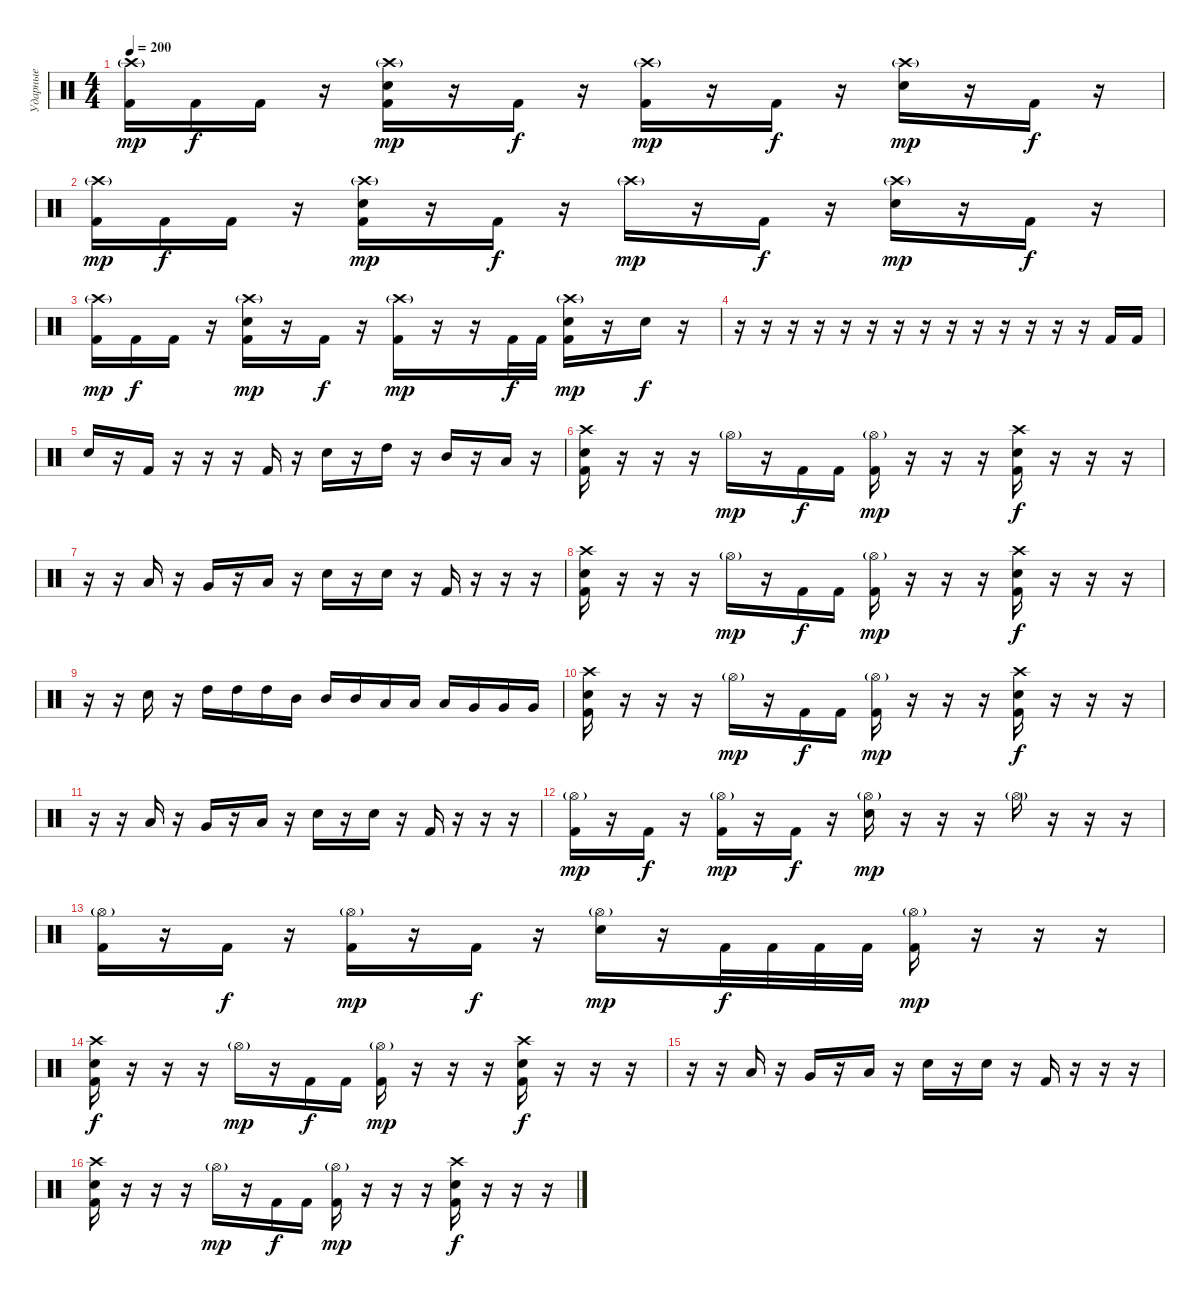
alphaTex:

\track ("Ударные" "Ударные") {instrument percussion bank 101}
\staff {score}
\articulation defaults
\ts (4 4)
\tempo 200
\clef neutral
\ks c
("Crash high (hit)"{g} "Kick (hit) 2").16{dy mp} "Kick (hit) 2".16{dy f} "Kick (hit) 2".16 r.16 ("Crash high (hit)"{g} "Electric Snare (hit)" "Kick (hit) 2").16{dy mp} r.16 "Kick (hit) 2".16{dy f} r.16 ("Crash high (hit)"{g} "Kick (hit) 2").16{dy mp} r.16 "Kick (hit) 2".16{dy f} r.16 ("Crash high (hit)"{g} "Electric Snare (hit)").16{dy mp} r.16 "Kick (hit) 2".16{dy f} r.16 |
("Crash high (hit)"{g} "Kick (hit) 2").16{dy mp} "Kick (hit) 2".16{dy f} "Kick (hit) 2".16 r.16 ("Crash high (hit)"{g} "Electric Snare (hit)" "Kick (hit) 2").16{dy mp} r.16 "Kick (hit) 2".16{dy f} r.16 "Crash high (hit)"{g}.16{dy mp} r.16 "Kick (hit) 2".16{dy f} r.16 ("Crash high (hit)"{g} "Electric Snare (hit)").16{dy mp} r.16 "Kick (hit) 2".16{dy f} r.16 |
("Crash high (hit)"{g} "Kick (hit) 2").16{dy mp} "Kick (hit) 2".16{dy f} "Kick (hit) 2".16 r.16 ("Crash high (hit)"{g} "Electric Snare (hit)" "Kick (hit) 2").16{dy mp} r.16 "Kick (hit) 2".16{dy f} r.16 ("Crash high (hit)"{g} "Kick (hit) 2").16{dy mp} r.16 r.16 "Kick (hit) 2".32{dy f} "Kick (hit) 2".32 ("Crash high (hit)"{g} "Electric Snare (hit)" "Kick (hit) 2").16{dy mp} r.16 "Electric Snare (hit)".16{dy f} r.16 |
r.16 r.16 r.16 r.16 r.16 r.16 r.16 r.16 r.16 r.16 r.16 r.16 r.16 r.16 "Kick (hit) 2".16 "Kick (hit) 2".16 |
"Electric Snare (hit)".16 r.16 "Kick (hit) 2".16 r.16 r.16 r.16 "Kick (hit) 2".16 r.16 "Electric Snare (hit)".16 r.16 "High Tom (hit)".16 r.16 "Mid Tom (hit)".16 r.16 "Low Tom (hit)".16 r.16 |
("Crash high (hit)" "Electric Snare (hit)" "Kick (hit) 2").16 r.16 r.16 r.16 "Hi-Hat (open)"{g}.16{dy mp} r.16 "Kick (hit) 2".16{dy f} "Kick (hit) 2".16 ("Hi-Hat (open)"{g} "Kick (hit) 2").16{dy mp} r.16 r.16 r.16 ("Crash high (hit)" "Electric Snare (hit)" "Kick (hit) 2").16{dy f} r.16 r.16 r.16 |
r.16 r.16 "Low Tom (hit)".16 r.16 "Very Low Tom (hit)".16 r.16 "Low Floor Tom (hit)".16 r.16 "Electric Snare (hit)".16 r.16 "Electric Snare (hit)".16 r.16 "Kick (hit) 2".16 r.16 r.16 r.16 |
("Crash high (hit)" "Electric Snare (hit)" "Kick (hit) 2").16 r.16 r.16 r.16 "Hi-Hat (open)"{g}.16{dy mp} r.16 "Kick (hit) 2".16{dy f} "Kick (hit) 2".16 ("Hi-Hat (open)"{g} "Kick (hit) 2").16{dy mp} r.16 r.16 r.16 ("Crash high (hit)" "Electric Snare (hit)" "Kick (hit) 2").16{dy f} r.16 r.16 r.16 |
r.16 r.16 "Electric Snare (hit)".16 r.16 "High Tom (hit)".16 "High Tom (hit)".16 "High Tom (hit)".16 "Mid Tom (hit)".16 "Mid Tom (hit)".16 "Mid Tom (hit)".16 "Low Tom (hit)".16 "Low Tom (hit)".16 "Low Tom (hit)".16 "Very Low Tom (hit)".16 "Very Low Tom (hit)".16 "Very Low Tom (hit)".16 |
("Crash high (hit)" "Electric Snare (hit)" "Kick (hit) 2").16 r.16 r.16 r.16 "Hi-Hat (open)"{g}.16{dy mp} r.16 "Kick (hit) 2".16{dy f} "Kick (hit) 2".16 ("Hi-Hat (open)"{g} "Kick (hit) 2").16{dy mp} r.16 r.16 r.16 ("Crash high (hit)" "Electric Snare (hit)" "Kick (hit) 2").16{dy f} r.16 r.16 r.16 |
r.16 r.16 "Low Tom (hit)".16 r.16 "Very Low Tom (hit)".16 r.16 "Low Floor Tom (hit)".16 r.16 "Electric Snare (hit)".16 r.16 "Electric Snare (hit)".16 r.16 "Kick (hit) 2".16 r.16 r.16 r.16 |
("Hi-Hat (open)"{g} "Kick (hit) 2").16{dy mp} r.16 "Kick (hit) 2".16{dy f} r.16 ("Hi-Hat (open)"{g} "Kick (hit) 2").16{dy mp} r.16 "Kick (hit) 2".16{dy f} r.16 ("Hi-Hat (open)"{g} "Electric Snare (hit)").16{dy mp} r.16 r.16 r.16 "Hi-Hat (open)"{g}.16 r.16 r.16 r.16 |
("Hi-Hat (open)"{g} "Kick (hit) 2").16 r.16 "Kick (hit) 2".16{dy f} r.16 ("Hi-Hat (open)"{g} "Kick (hit) 2").16{dy mp} r.16 "Kick (hit) 2".16{dy f} r.16 ("Hi-Hat (open)"{g} "Electric Snare (hit)").16{dy mp} r.16 "Kick (hit) 2".32{dy f} "Kick (hit) 2".32 "Kick (hit) 2".32 "Kick (hit) 2".32 ("Hi-Hat (open)"{g} "Kick (hit) 2").16{dy mp} r.16 r.16 r.16 |
("Crash high (hit)" "Electric Snare (hit)" "Kick (hit) 2").16{dy f} r.16 r.16 r.16 "Hi-Hat (open)"{g}.16{dy mp} r.16 "Kick (hit) 2".16{dy f} "Kick (hit) 2".16 ("Hi-Hat (open)"{g} "Kick (hit) 2").16{dy mp} r.16 r.16 r.16 ("Crash high (hit)" "Electric Snare (hit)" "Kick (hit) 2").16{dy f} r.16 r.16 r.16 |
r.16 r.16 "Low Tom (hit)".16 r.16 "Very Low Tom (hit)".16 r.16 "Low Floor Tom (hit)".16 r.16 "Electric Snare (hit)".16 r.16 "Electric Snare (hit)".16 r.16 "Kick (hit) 2".16 r.16 r.16 r.16 |
("Crash high (hit)" "Electric Snare (hit)" "Kick (hit) 2").16 r.16 r.16 r.16 "Hi-Hat (open)"{g}.16{dy mp} r.16 "Kick (hit) 2".16{dy f} "Kick (hit) 2".16 ("Hi-Hat (open)"{g} "Kick (hit) 2").16{dy mp} r.16 r.16 r.16 ("Crash high (hit)" "Electric Snare (hit)" "Kick (hit) 2").16{dy f} r.16 r.16 r.16
